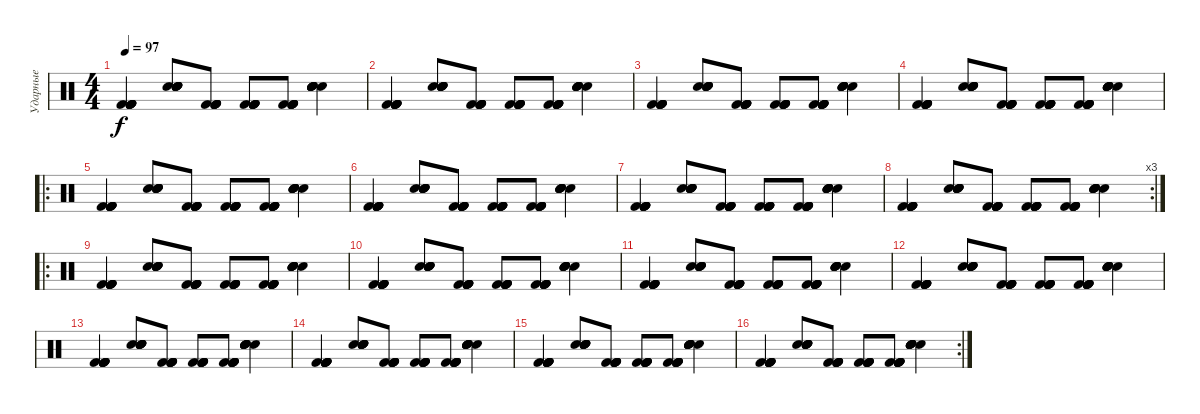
\track ("Ударные" "Ударные") {instrument percussion}
\staff {score}
\articulation defaults
\ts (4 4)
\tempo 97
\clef neutral
\ks c
("Kick (hit) 2" "Kick (hit) 2" "Kick (hit) 2" "Kick (hit) 2" "Kick (hit) 2" "Kick (hit) 2").4{dy f} ("Snare (hit) 2" "Snare (hit) 2" "Snare (hit) 2" "Snare (hit) 2" "Snare (hit) 2" "Snare (hit) 2").8 ("Kick (hit) 2" "Kick (hit) 2" "Kick (hit) 2" "Kick (hit) 2" "Kick (hit) 2" "Kick (hit) 2").8 ("Kick (hit) 2" "Kick (hit) 2" "Kick (hit) 2" "Kick (hit) 2" "Kick (hit) 2" "Kick (hit) 2").8 ("Kick (hit) 2" "Kick (hit) 2" "Kick (hit) 2" "Kick (hit) 2" "Kick (hit) 2" "Kick (hit) 2").8 ("Snare (hit) 2" "Snare (hit) 2" "Snare (hit) 2" "Snare (hit) 2" "Snare (hit) 2" "Snare (hit) 2").4 |
("Kick (hit) 2" "Kick (hit) 2" "Kick (hit) 2" "Kick (hit) 2" "Kick (hit) 2" "Kick (hit) 2").4 ("Snare (hit) 2" "Snare (hit) 2" "Snare (hit) 2" "Snare (hit) 2" "Snare (hit) 2" "Snare (hit) 2").8 ("Kick (hit) 2" "Kick (hit) 2" "Kick (hit) 2" "Kick (hit) 2" "Kick (hit) 2" "Kick (hit) 2").8 ("Kick (hit) 2" "Kick (hit) 2" "Kick (hit) 2" "Kick (hit) 2" "Kick (hit) 2" "Kick (hit) 2").8 ("Kick (hit) 2" "Kick (hit) 2" "Kick (hit) 2" "Kick (hit) 2" "Kick (hit) 2" "Kick (hit) 2").8 ("Snare (hit) 2" "Snare (hit) 2" "Snare (hit) 2" "Snare (hit) 2" "Snare (hit) 2" "Snare (hit) 2").4 |
("Kick (hit) 2" "Kick (hit) 2" "Kick (hit) 2" "Kick (hit) 2" "Kick (hit) 2" "Kick (hit) 2").4 ("Snare (hit) 2" "Snare (hit) 2" "Snare (hit) 2" "Snare (hit) 2" "Snare (hit) 2" "Snare (hit) 2").8 ("Kick (hit) 2" "Kick (hit) 2" "Kick (hit) 2" "Kick (hit) 2" "Kick (hit) 2" "Kick (hit) 2").8 ("Kick (hit) 2" "Kick (hit) 2" "Kick (hit) 2" "Kick (hit) 2" "Kick (hit) 2" "Kick (hit) 2").8 ("Kick (hit) 2" "Kick (hit) 2" "Kick (hit) 2" "Kick (hit) 2" "Kick (hit) 2" "Kick (hit) 2").8 ("Snare (hit) 2" "Snare (hit) 2" "Snare (hit) 2" "Snare (hit) 2" "Snare (hit) 2" "Snare (hit) 2").4 |
("Kick (hit) 2" "Kick (hit) 2" "Kick (hit) 2" "Kick (hit) 2" "Kick (hit) 2" "Kick (hit) 2").4 ("Snare (hit) 2" "Snare (hit) 2" "Snare (hit) 2" "Snare (hit) 2" "Snare (hit) 2" "Snare (hit) 2").8 ("Kick (hit) 2" "Kick (hit) 2" "Kick (hit) 2" "Kick (hit) 2" "Kick (hit) 2" "Kick (hit) 2").8 ("Kick (hit) 2" "Kick (hit) 2" "Kick (hit) 2" "Kick (hit) 2" "Kick (hit) 2" "Kick (hit) 2").8 ("Kick (hit) 2" "Kick (hit) 2" "Kick (hit) 2" "Kick (hit) 2" "Kick (hit) 2" "Kick (hit) 2").8 ("Snare (hit) 2" "Snare (hit) 2" "Snare (hit) 2" "Snare (hit) 2" "Snare (hit) 2" "Snare (hit) 2").4 |
\ro
("Kick (hit) 2" "Kick (hit) 2" "Kick (hit) 2" "Kick (hit) 2" "Kick (hit) 2" "Kick (hit) 2").4 ("Snare (hit) 2" "Snare (hit) 2" "Snare (hit) 2" "Snare (hit) 2" "Snare (hit) 2" "Snare (hit) 2").8 ("Kick (hit) 2" "Kick (hit) 2" "Kick (hit) 2" "Kick (hit) 2" "Kick (hit) 2" "Kick (hit) 2").8 ("Kick (hit) 2" "Kick (hit) 2" "Kick (hit) 2" "Kick (hit) 2" "Kick (hit) 2" "Kick (hit) 2").8 ("Kick (hit) 2" "Kick (hit) 2" "Kick (hit) 2" "Kick (hit) 2" "Kick (hit) 2" "Kick (hit) 2").8 ("Snare (hit) 2" "Snare (hit) 2" "Snare (hit) 2" "Snare (hit) 2" "Snare (hit) 2" "Snare (hit) 2").4 |
("Kick (hit) 2" "Kick (hit) 2" "Kick (hit) 2" "Kick (hit) 2" "Kick (hit) 2" "Kick (hit) 2").4 ("Snare (hit) 2" "Snare (hit) 2" "Snare (hit) 2" "Snare (hit) 2" "Snare (hit) 2" "Snare (hit) 2").8 ("Kick (hit) 2" "Kick (hit) 2" "Kick (hit) 2" "Kick (hit) 2" "Kick (hit) 2" "Kick (hit) 2").8 ("Kick (hit) 2" "Kick (hit) 2" "Kick (hit) 2" "Kick (hit) 2" "Kick (hit) 2" "Kick (hit) 2").8 ("Kick (hit) 2" "Kick (hit) 2" "Kick (hit) 2" "Kick (hit) 2" "Kick (hit) 2" "Kick (hit) 2").8 ("Snare (hit) 2" "Snare (hit) 2" "Snare (hit) 2" "Snare (hit) 2" "Snare (hit) 2" "Snare (hit) 2").4 |
("Kick (hit) 2" "Kick (hit) 2" "Kick (hit) 2" "Kick (hit) 2" "Kick (hit) 2" "Kick (hit) 2").4 ("Snare (hit) 2" "Snare (hit) 2" "Snare (hit) 2" "Snare (hit) 2" "Snare (hit) 2" "Snare (hit) 2").8 ("Kick (hit) 2" "Kick (hit) 2" "Kick (hit) 2" "Kick (hit) 2" "Kick (hit) 2" "Kick (hit) 2").8 ("Kick (hit) 2" "Kick (hit) 2" "Kick (hit) 2" "Kick (hit) 2" "Kick (hit) 2" "Kick (hit) 2").8 ("Kick (hit) 2" "Kick (hit) 2" "Kick (hit) 2" "Kick (hit) 2" "Kick (hit) 2" "Kick (hit) 2").8 ("Snare (hit) 2" "Snare (hit) 2" "Snare (hit) 2" "Snare (hit) 2" "Snare (hit) 2" "Snare (hit) 2").4 |
\rc 3
("Kick (hit) 2" "Kick (hit) 2" "Kick (hit) 2" "Kick (hit) 2" "Kick (hit) 2" "Kick (hit) 2").4 ("Snare (hit) 2" "Snare (hit) 2" "Snare (hit) 2" "Snare (hit) 2" "Snare (hit) 2" "Snare (hit) 2").8 ("Kick (hit) 2" "Kick (hit) 2" "Kick (hit) 2" "Kick (hit) 2" "Kick (hit) 2" "Kick (hit) 2").8 ("Kick (hit) 2" "Kick (hit) 2" "Kick (hit) 2" "Kick (hit) 2" "Kick (hit) 2" "Kick (hit) 2").8 ("Kick (hit) 2" "Kick (hit) 2" "Kick (hit) 2" "Kick (hit) 2" "Kick (hit) 2" "Kick (hit) 2").8 ("Snare (hit) 2" "Snare (hit) 2" "Snare (hit) 2" "Snare (hit) 2" "Snare (hit) 2" "Snare (hit) 2").4 |
\ro
("Kick (hit) 2" "Kick (hit) 2" "Kick (hit) 2" "Kick (hit) 2" "Kick (hit) 2" "Kick (hit) 2").4 ("Snare (hit) 2" "Snare (hit) 2" "Snare (hit) 2" "Snare (hit) 2" "Snare (hit) 2" "Snare (hit) 2").8 ("Kick (hit) 2" "Kick (hit) 2" "Kick (hit) 2" "Kick (hit) 2" "Kick (hit) 2" "Kick (hit) 2").8 ("Kick (hit) 2" "Kick (hit) 2" "Kick (hit) 2" "Kick (hit) 2" "Kick (hit) 2" "Kick (hit) 2").8 ("Kick (hit) 2" "Kick (hit) 2" "Kick (hit) 2" "Kick (hit) 2" "Kick (hit) 2" "Kick (hit) 2").8 ("Snare (hit) 2" "Snare (hit) 2" "Snare (hit) 2" "Snare (hit) 2" "Snare (hit) 2" "Snare (hit) 2").4 |
("Kick (hit) 2" "Kick (hit) 2" "Kick (hit) 2" "Kick (hit) 2" "Kick (hit) 2" "Kick (hit) 2").4 ("Snare (hit) 2" "Snare (hit) 2" "Snare (hit) 2" "Snare (hit) 2" "Snare (hit) 2" "Snare (hit) 2").8 ("Kick (hit) 2" "Kick (hit) 2" "Kick (hit) 2" "Kick (hit) 2" "Kick (hit) 2" "Kick (hit) 2").8 ("Kick (hit) 2" "Kick (hit) 2" "Kick (hit) 2" "Kick (hit) 2" "Kick (hit) 2" "Kick (hit) 2").8 ("Kick (hit) 2" "Kick (hit) 2" "Kick (hit) 2" "Kick (hit) 2" "Kick (hit) 2" "Kick (hit) 2").8 ("Snare (hit) 2" "Snare (hit) 2" "Snare (hit) 2" "Snare (hit) 2" "Snare (hit) 2" "Snare (hit) 2").4 |
("Kick (hit) 2" "Kick (hit) 2" "Kick (hit) 2" "Kick (hit) 2" "Kick (hit) 2" "Kick (hit) 2").4 ("Snare (hit) 2" "Snare (hit) 2" "Snare (hit) 2" "Snare (hit) 2" "Snare (hit) 2" "Snare (hit) 2").8 ("Kick (hit) 2" "Kick (hit) 2" "Kick (hit) 2" "Kick (hit) 2" "Kick (hit) 2" "Kick (hit) 2").8 ("Kick (hit) 2" "Kick (hit) 2" "Kick (hit) 2" "Kick (hit) 2" "Kick (hit) 2" "Kick (hit) 2").8 ("Kick (hit) 2" "Kick (hit) 2" "Kick (hit) 2" "Kick (hit) 2" "Kick (hit) 2" "Kick (hit) 2").8 ("Snare (hit) 2" "Snare (hit) 2" "Snare (hit) 2" "Snare (hit) 2" "Snare (hit) 2" "Snare (hit) 2").4 |
("Kick (hit) 2" "Kick (hit) 2" "Kick (hit) 2" "Kick (hit) 2" "Kick (hit) 2" "Kick (hit) 2").4 ("Snare (hit) 2" "Snare (hit) 2" "Snare (hit) 2" "Snare (hit) 2" "Snare (hit) 2" "Snare (hit) 2").8 ("Kick (hit) 2" "Kick (hit) 2" "Kick (hit) 2" "Kick (hit) 2" "Kick (hit) 2" "Kick (hit) 2").8 ("Kick (hit) 2" "Kick (hit) 2" "Kick (hit) 2" "Kick (hit) 2" "Kick (hit) 2" "Kick (hit) 2").8 ("Kick (hit) 2" "Kick (hit) 2" "Kick (hit) 2" "Kick (hit) 2" "Kick (hit) 2" "Kick (hit) 2").8 ("Snare (hit) 2" "Snare (hit) 2" "Snare (hit) 2" "Snare (hit) 2" "Snare (hit) 2" "Snare (hit) 2").4 |
("Kick (hit) 2" "Kick (hit) 2" "Kick (hit) 2" "Kick (hit) 2" "Kick (hit) 2" "Kick (hit) 2").4 ("Snare (hit) 2" "Snare (hit) 2" "Snare (hit) 2" "Snare (hit) 2" "Snare (hit) 2" "Snare (hit) 2").8 ("Kick (hit) 2" "Kick (hit) 2" "Kick (hit) 2" "Kick (hit) 2" "Kick (hit) 2" "Kick (hit) 2").8 ("Kick (hit) 2" "Kick (hit) 2" "Kick (hit) 2" "Kick (hit) 2" "Kick (hit) 2" "Kick (hit) 2").8 ("Kick (hit) 2" "Kick (hit) 2" "Kick (hit) 2" "Kick (hit) 2" "Kick (hit) 2" "Kick (hit) 2").8 ("Snare (hit) 2" "Snare (hit) 2" "Snare (hit) 2" "Snare (hit) 2" "Snare (hit) 2" "Snare (hit) 2").4 |
("Kick (hit) 2" "Kick (hit) 2" "Kick (hit) 2" "Kick (hit) 2" "Kick (hit) 2" "Kick (hit) 2").4 ("Snare (hit) 2" "Snare (hit) 2" "Snare (hit) 2" "Snare (hit) 2" "Snare (hit) 2" "Snare (hit) 2").8 ("Kick (hit) 2" "Kick (hit) 2" "Kick (hit) 2" "Kick (hit) 2" "Kick (hit) 2" "Kick (hit) 2").8 ("Kick (hit) 2" "Kick (hit) 2" "Kick (hit) 2" "Kick (hit) 2" "Kick (hit) 2" "Kick (hit) 2").8 ("Kick (hit) 2" "Kick (hit) 2" "Kick (hit) 2" "Kick (hit) 2" "Kick (hit) 2" "Kick (hit) 2").8 ("Snare (hit) 2" "Snare (hit) 2" "Snare (hit) 2" "Snare (hit) 2" "Snare (hit) 2" "Snare (hit) 2").4 |
("Kick (hit) 2" "Kick (hit) 2" "Kick (hit) 2" "Kick (hit) 2" "Kick (hit) 2" "Kick (hit) 2").4 ("Snare (hit) 2" "Snare (hit) 2" "Snare (hit) 2" "Snare (hit) 2" "Snare (hit) 2" "Snare (hit) 2").8 ("Kick (hit) 2" "Kick (hit) 2" "Kick (hit) 2" "Kick (hit) 2" "Kick (hit) 2" "Kick (hit) 2").8 ("Kick (hit) 2" "Kick (hit) 2" "Kick (hit) 2" "Kick (hit) 2" "Kick (hit) 2" "Kick (hit) 2").8 ("Kick (hit) 2" "Kick (hit) 2" "Kick (hit) 2" "Kick (hit) 2" "Kick (hit) 2" "Kick (hit) 2").8 ("Snare (hit) 2" "Snare (hit) 2" "Snare (hit) 2" "Snare (hit) 2" "Snare (hit) 2" "Snare (hit) 2").4 |
\rc 2
("Kick (hit) 2" "Kick (hit) 2" "Kick (hit) 2" "Kick (hit) 2" "Kick (hit) 2" "Kick (hit) 2").4 ("Snare (hit) 2" "Snare (hit) 2" "Snare (hit) 2" "Snare (hit) 2" "Snare (hit) 2" "Snare (hit) 2").8 ("Kick (hit) 2" "Kick (hit) 2" "Kick (hit) 2" "Kick (hit) 2" "Kick (hit) 2" "Kick (hit) 2").8 ("Kick (hit) 2" "Kick (hit) 2" "Kick (hit) 2" "Kick (hit) 2" "Kick (hit) 2" "Kick (hit) 2").8 ("Kick (hit) 2" "Kick (hit) 2" "Kick (hit) 2" "Kick (hit) 2" "Kick (hit) 2" "Kick (hit) 2").8 ("Snare (hit) 2" "Snare (hit) 2" "Snare (hit) 2" "Snare (hit) 2" "Snare (hit) 2" "Snare (hit) 2").4
